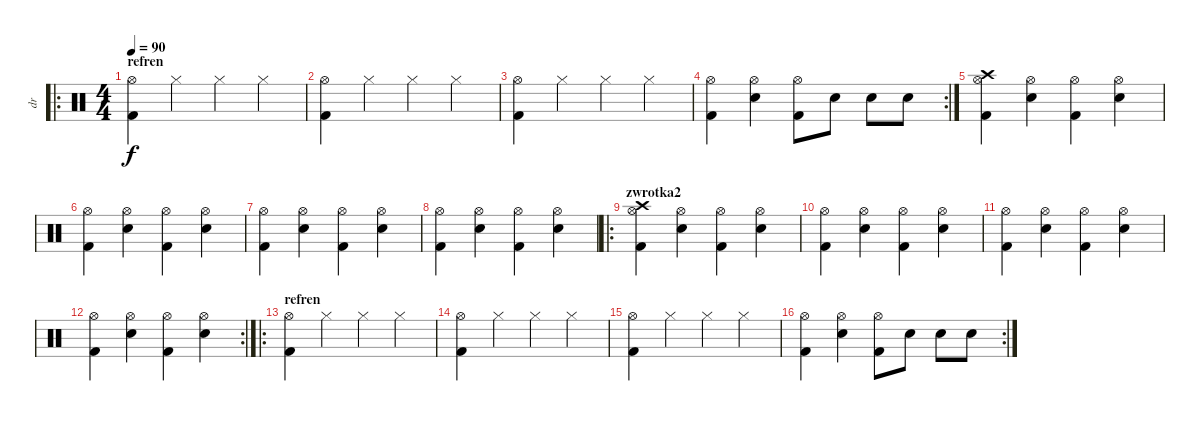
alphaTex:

\track ("dr" "dr") {instrument percussion}
\staff {score}
\articulation defaults
\ro
\ts (4 4)
\section ("" "refren")
\tempo 90
\clef neutral
\ks c
("Hi-Hat (open)" "Kick (hit) 2").4{dy f} "Hi-Hat (closed)".4 "Hi-Hat (closed)".4 "Hi-Hat (closed)".4 |
("Hi-Hat (open)" "Kick (hit) 2").4 "Hi-Hat (closed)".4 "Hi-Hat (closed)".4 "Hi-Hat (closed)".4 |
("Hi-Hat (open)" "Kick (hit) 2").4 "Hi-Hat (closed)".4 "Hi-Hat (closed)".4 "Hi-Hat (closed)".4 |
\rc 2
("Hi-Hat (open)" "Kick (hit) 2").4 ("Hi-Hat (open)" "Electric Snare (hit)").4 ("Hi-Hat (open)" "Kick (hit) 2").8 "Electric Snare (hit)".8 "Electric Snare (hit)".8 "Electric Snare (hit)".8 |
("Hi-Hat (open)" "Kick (hit) 2" "Crash high (hit)").4 ("Hi-Hat (open)" "Electric Snare (hit)").4 ("Hi-Hat (open)" "Kick (hit) 2").4 ("Hi-Hat (open)" "Electric Snare (hit)").4 |
("Hi-Hat (open)" "Kick (hit) 2").4 ("Hi-Hat (open)" "Electric Snare (hit)").4 ("Hi-Hat (open)" "Kick (hit) 2").4 ("Hi-Hat (open)" "Electric Snare (hit)").4 |
("Hi-Hat (open)" "Kick (hit) 2").4 ("Hi-Hat (open)" "Electric Snare (hit)").4 ("Hi-Hat (open)" "Kick (hit) 2").4 ("Hi-Hat (open)" "Electric Snare (hit)").4 |
("Hi-Hat (open)" "Kick (hit) 2").4 ("Hi-Hat (open)" "Electric Snare (hit)").4 ("Hi-Hat (open)" "Kick (hit) 2").4 ("Hi-Hat (open)" "Electric Snare (hit)").4 |
\ro
\section ("" "zwrotka2")
("Hi-Hat (open)" "Kick (hit) 2" "Crash high (hit)").4 ("Hi-Hat (open)" "Electric Snare (hit)").4 ("Hi-Hat (open)" "Kick (hit) 2").4 ("Hi-Hat (open)" "Electric Snare (hit)").4 |
("Hi-Hat (open)" "Kick (hit) 2").4 ("Hi-Hat (open)" "Electric Snare (hit)").4 ("Hi-Hat (open)" "Kick (hit) 2").4 ("Hi-Hat (open)" "Electric Snare (hit)").4 |
("Hi-Hat (open)" "Kick (hit) 2").4 ("Hi-Hat (open)" "Electric Snare (hit)").4 ("Hi-Hat (open)" "Kick (hit) 2").4 ("Hi-Hat (open)" "Electric Snare (hit)").4 |
\rc 2
("Hi-Hat (open)" "Kick (hit) 2").4 ("Hi-Hat (open)" "Electric Snare (hit)").4 ("Hi-Hat (open)" "Kick (hit) 2").4 ("Hi-Hat (open)" "Electric Snare (hit)").4 |
\ro
\section ("" "refren")
("Hi-Hat (open)" "Kick (hit) 2").4 "Hi-Hat (closed)".4 "Hi-Hat (closed)".4 "Hi-Hat (closed)".4 |
("Hi-Hat (open)" "Kick (hit) 2").4 "Hi-Hat (closed)".4 "Hi-Hat (closed)".4 "Hi-Hat (closed)".4 |
("Hi-Hat (open)" "Kick (hit) 2").4 "Hi-Hat (closed)".4 "Hi-Hat (closed)".4 "Hi-Hat (closed)".4 |
\rc 2
("Hi-Hat (open)" "Kick (hit) 2").4 ("Hi-Hat (open)" "Electric Snare (hit)").4 ("Hi-Hat (open)" "Kick (hit) 2").8 "Electric Snare (hit)".8 "Electric Snare (hit)".8 "Electric Snare (hit)".8
